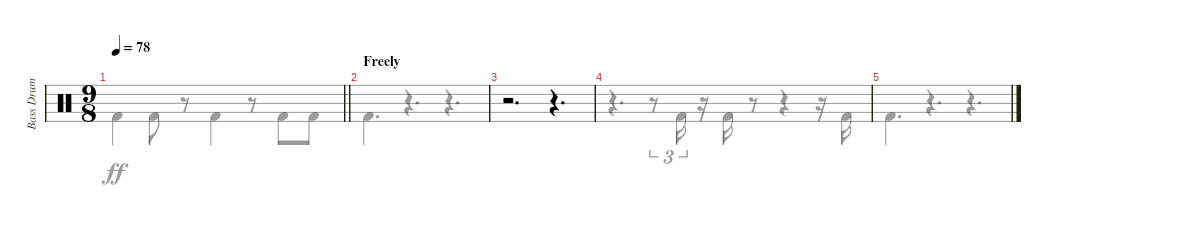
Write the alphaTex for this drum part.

\track ("Bass Drum" "Bass Drum") {instrument percussion}
\staff {score}
\articulation defaults
\voice
\ts (9 8)
\tempo 78
\clef neutral
\barLineRight lightlight
\ks c
|
\section ("" "Freely")
|
r.2{d} r.4{d} |
|
\voice
\clef neutral
\ottava regular
\simile none
\barLineRight lightlight
\ks c "Kick (hit) 2".4{dy ff} "Kick (hit) 2".8
r.8 "Kick (hit) 2".4 r.8 "Kick (hit) 2".8 "Kick (hit) 2".8 |
"Kick (hit) 2".4{d} r.4{d} r.4{d} |
|
r.4{d} r.8{tu (3 2)} "Kick (hit) 2".16{tu (3 2)} r.16 "Kick (hit) 2".16 r.8 r.4 r.16 "Kick (hit) 2".16 |
"Kick (hit) 2".4{d} r.4{d} r.4{d}
